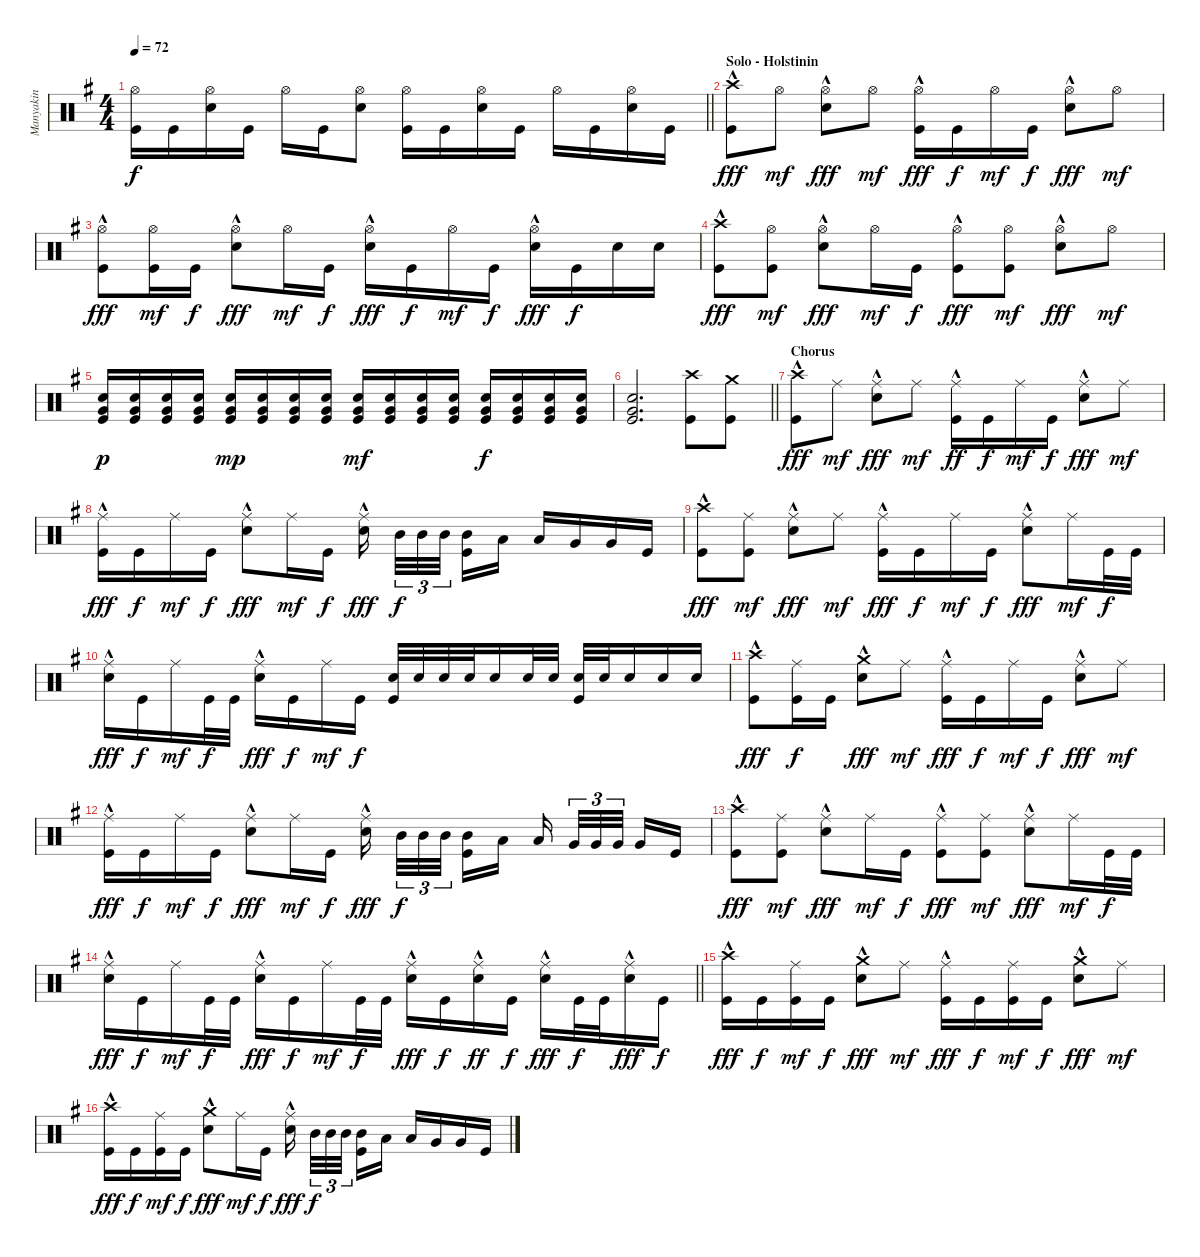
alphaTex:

\track ("Manyakin" "Manyakin") {instrument percussion}
\staff {score}
\articulation defaults
\ts (4 4)
\tempo 72
\clef neutral
\barLineRight lightlight
\ks eminor
("Hi-Hat (open)" "Kick (hit)").16{dy f beam Down} "Kick (hit)".16{beam Down} ("Hi-Hat (open)" "Snare (hit) 2").16{beam Down} "Kick (hit)".16{beam Down} "Hi-Hat (open)".16{beam Down} "Kick (hit)".16{beam Down} ("Hi-Hat (open)" "Snare (hit) 2").8{beam Down} ("Hi-Hat (open)" "Kick (hit)").16{beam Down} "Kick (hit)".16{beam Down} ("Hi-Hat (open)" "Snare (hit) 2").16{beam Down} "Kick (hit)".16{beam Down} "Hi-Hat (open)".16{beam Down} "Kick (hit)".16{beam Down} ("Hi-Hat (open)" "Snare (hit) 2").16{beam Down} "Kick (hit)".16{beam Down} |
\section ("" "Solo - Holstinin")
("Crash high (hit)"{hac} "Kick (hit)").8{dy fff beam Down} "Hi-Hat (open)".8{dy mf beam Down} ("Hi-Hat (open)"{hac} "Snare (hit) 2").8{dy fff beam Down} "Hi-Hat (open)".8{dy mf beam Down} ("Hi-Hat (open)"{hac} "Kick (hit)").16{dy fff beam Down} "Kick (hit)".16{dy f beam Down} "Hi-Hat (open)".16{dy mf beam Down} "Kick (hit)".16{dy f beam Down} ("Hi-Hat (open)"{hac} "Snare (hit) 2").8{dy fff beam Down} "Hi-Hat (open)".8{dy mf beam Down} |
("Hi-Hat (open)"{hac} "Kick (hit)").8{dy fff beam Down} ("Hi-Hat (open)" "Kick (hit)").16{dy mf beam Down} "Kick (hit)".16{dy f beam Down} ("Hi-Hat (open)"{hac} "Snare (hit) 2").8{dy fff beam Down} "Hi-Hat (open)".16{dy mf beam Down} "Kick (hit)".16{dy f beam Down} ("Hi-Hat (open)"{hac} "Snare (hit) 2").16{dy fff beam Down} "Kick (hit)".16{dy f beam Down} "Hi-Hat (open)".16{dy mf beam Down} "Kick (hit)".16{dy f beam Down} ("Hi-Hat (open)"{hac} "Snare (hit) 2").16{dy fff beam Down} "Kick (hit)".16{dy f beam Down} "Snare (hit) 2".16{beam Down} "Snare (hit) 2".16{beam Down} |
("Crash high (hit)"{hac} "Kick (hit)").8{dy fff beam Down} ("Hi-Hat (open)" "Kick (hit)").8{dy mf beam Down} ("Hi-Hat (open)"{hac} "Snare (hit) 2").8{dy fff beam Down} "Hi-Hat (open)".16{dy mf beam Down} "Kick (hit)".16{dy f beam Down} ("Hi-Hat (open)"{hac} "Kick (hit)").8{dy fff beam Down} ("Hi-Hat (open)" "Kick (hit)").8{dy mf beam Down} ("Hi-Hat (open)"{hac} "Snare (hit) 2").8{dy fff beam Down} "Hi-Hat (open)".8{dy mf beam Down} |
("Snare (hit) 2" "Very Low Tom (hit)" "Kick (hit)").16{dy p beam Up} ("Snare (hit) 2" "Very Low Tom (hit)" "Kick (hit)").16{beam Up} ("Snare (hit) 2" "Very Low Tom (hit)" "Kick (hit)").16{beam Up} ("Snare (hit) 2" "Very Low Tom (hit)" "Kick (hit)").16{beam Up} ("Snare (hit) 2" "Very Low Tom (hit)" "Kick (hit)").16{dy mp beam Up} ("Snare (hit) 2" "Very Low Tom (hit)" "Kick (hit)").16{beam Up} ("Snare (hit) 2" "Very Low Tom (hit)" "Kick (hit)").16{beam Up} ("Snare (hit) 2" "Very Low Tom (hit)" "Kick (hit)").16{beam Up} ("Snare (hit) 2" "Very Low Tom (hit)" "Kick (hit)").16{dy mf beam Up} ("Snare (hit) 2" "Very Low Tom (hit)" "Kick (hit)").16{beam Up} ("Snare (hit) 2" "Very Low Tom (hit)" "Kick (hit)").16{beam Up} ("Snare (hit) 2" "Very Low Tom (hit)" "Kick (hit)").16{beam Up} ("Snare (hit) 2" "Very Low Tom (hit)" "Kick (hit)").16{dy f beam Up} ("Snare (hit) 2" "Very Low Tom (hit)" "Kick (hit)").16{beam Up} ("Snare (hit) 2" "Very Low Tom (hit)" "Kick (hit)").16{beam Up} ("Snare (hit) 2" "Very Low Tom (hit)" "Kick (hit)").16{beam Up} |
\barLineRight lightlight
("Snare (hit) 2" "Very Low Tom (hit)" "Kick (hit)").2{d beam Up} ("Crash high (hit)" "Kick (hit)").8{beam Down} ("Crash medium (hit)" "Kick (hit)").8{beam Down} |
\section ("" "Chorus")
("Crash high (hit)"{hac} "Kick (hit)").8{dy fff beam Down} "Ride (middle)".8{dy mf beam Down} ("Ride (middle)"{hac} "Snare (hit) 2").8{dy fff beam Down} "Ride (middle)".8{dy mf beam Down} ("Ride (middle)"{hac} "Kick (hit)").16{dy ff beam Down} "Kick (hit)".16{dy f beam Down} "Ride (middle)".16{dy mf beam Down} "Kick (hit)".16{dy f beam Down} ("Ride (middle)"{hac} "Snare (hit) 2").8{dy fff beam Down} "Ride (middle)".8{dy mf beam Down} |
("Ride (middle)"{hac} "Kick (hit)").16{dy fff beam Down} "Kick (hit)".16{dy f beam Down} "Ride (middle)".16{dy mf beam Down} "Kick (hit)".16{dy f beam Down} ("Ride (middle)"{hac} "Snare (hit) 2").8{dy fff beam Down} "Ride (middle)".16{dy mf beam Down} "Kick (hit)".16{dy f beam Down} ("Ride (middle)"{hac} "Snare (hit) 2").16{dy fff beam Down beam splitsecondary} "Mid Tom (hit)".32{tu (3 2) dy f beam Down} "Mid Tom (hit)".32{tu (3 2) beam Down} "Mid Tom (hit)".32{tu (3 2) beam Down beam splitsecondary} ("Mid Tom (hit)" "Kick (hit)").16{beam Down} "Low Tom (hit)".16{beam Down} "Low Tom (hit)".16{beam Up} "Very Low Tom (hit)".16{beam Up} "Very Low Tom (hit)".16{beam Up} "Kick (hit)".16{beam Up} |
("Crash high (hit)"{hac} "Kick (hit)").8{dy fff beam Down} ("Ride (middle)" "Kick (hit)").8{dy mf beam Down} ("Ride (middle)"{hac} "Snare (hit) 2").8{dy fff beam Down} "Ride (middle)".8{dy mf beam Down} ("Ride (middle)"{hac} "Kick (hit)").16{dy fff beam Down} "Kick (hit)".16{dy f beam Down} "Ride (middle)".16{dy mf beam Down} "Kick (hit)".16{dy f beam Down} ("Ride (middle)"{hac} "Snare (hit) 2").8{dy fff beam Down} "Ride (middle)".16{dy mf beam Down} "Kick (hit)".32{dy f beam Down} "Kick (hit)".32{beam Down} |
("Ride (middle)"{hac} "Snare (hit) 2").16{dy fff beam Down} "Kick (hit)".16{dy f beam Down} "Ride (middle)".16{dy mf beam Down} "Kick (hit)".32{dy f beam Down} "Kick (hit)".32{beam Down} ("Ride (middle)"{hac} "Snare (hit) 2").16{dy fff beam Down} "Kick (hit)".16{dy f beam Down} "Ride (middle)".16{dy mf beam Down} "Kick (hit)".16{dy f beam Down} ("Snare (hit) 2" "Kick (hit)").32{beam Up} "Snare (hit) 2".32{beam Up} "Snare (hit) 2".32{beam Up} "Snare (hit) 2".32{beam Up} "Snare (hit) 2".16{beam Up} "Snare (hit) 2".32{beam Up} "Snare (hit) 2".32{beam Up} ("Snare (hit) 2" "Kick (hit)").32{beam Up} "Snare (hit) 2".32{beam Up} "Snare (hit) 2".16{beam Up} "Snare (hit) 2".16{beam Up} "Snare (hit) 2".16{beam Up} |
("Crash high (hit)"{hac} "Kick (hit)").8{dy fff beam Down} ("Ride (middle)" "Kick (hit)").16{dy f beam Down} "Kick (hit)".16{beam Down} ("Crash medium (hit)"{hac} "Snare (hit) 2").8{dy fff beam Down} "Ride (middle)".8{dy mf beam Down} ("Ride (middle)"{hac} "Kick (hit)").16{dy fff beam Down} "Kick (hit)".16{dy f beam Down} "Ride (middle)".16{dy mf beam Down} "Kick (hit)".16{dy f beam Down} ("Ride (middle)"{hac} "Snare (hit) 2").8{dy fff beam Down} "Ride (middle)".8{dy mf beam Down} |
("Ride (middle)"{hac} "Kick (hit)").16{dy fff beam Down} "Kick (hit)".16{dy f beam Down} "Ride (middle)".16{dy mf beam Down} "Kick (hit)".16{dy f beam Down} ("Ride (middle)"{hac} "Snare (hit) 2").8{dy fff beam Down} "Ride (middle)".16{dy mf beam Down} "Kick (hit)".16{dy f beam Down} ("Ride (middle)"{hac} "Snare (hit) 2").16{dy fff beam Down beam splitsecondary} "Mid Tom (hit)".32{tu (3 2) dy f beam Down} "Mid Tom (hit)".32{tu (3 2) beam Down} "Mid Tom (hit)".32{tu (3 2) beam Down beam splitsecondary} ("Mid Tom (hit)" "Kick (hit)").16{beam Down} "Low Tom (hit)".16{beam Down} "Low Tom (hit)".16{beam Up beam splitsecondary} "Very Low Tom (hit)".32{tu (3 2) beam Up} "Very Low Tom (hit)".32{tu (3 2) beam Up} "Very Low Tom (hit)".32{tu (3 2) beam Up beam splitsecondary} "Very Low Tom (hit)".16{beam Up} "Kick (hit)".16{beam Up} |
("Crash high (hit)"{hac} "Kick (hit)").8{dy fff beam Down} ("Ride (middle)" "Kick (hit)").8{dy mf beam Down} ("Ride (middle)"{hac} "Snare (hit) 2").8{dy fff beam Down} "Ride (middle)".16{dy mf beam Down} "Kick (hit)".16{dy f beam Down} ("Ride (middle)"{hac} "Kick (hit)").8{dy fff beam Down} ("Ride (middle)" "Kick (hit)").8{dy mf beam Down} ("Ride (middle)"{hac} "Snare (hit) 2").8{dy fff beam Down} "Ride (middle)".16{dy mf beam Down} "Kick (hit)".32{dy f beam Down} "Kick (hit)".32{beam Down} |
\barLineRight lightlight
("Ride (middle)"{hac} "Snare (hit) 2").16{dy fff beam Down} "Kick (hit)".16{dy f beam Down} "Ride (middle)".16{dy mf beam Down} "Kick (hit)".32{dy f beam Down} "Kick (hit)".32{beam Down} ("Ride (middle)"{hac} "Snare (hit) 2").16{dy fff beam Down} "Kick (hit)".16{dy f beam Down} "Ride (middle)".16{dy mf beam Down} "Kick (hit)".32{dy f beam Down} "Kick (hit)".32{beam Down} ("Ride (middle)"{hac} "Snare (hit) 2").16{dy fff beam Down} "Kick (hit)".16{dy f beam Down} ("Ride (middle)"{hac} "Snare (hit) 2").16{dy ff beam Down} "Kick (hit)".16{dy f beam Down} ("Ride (middle)"{hac} "Snare (hit) 2").16{dy fff beam Down} "Kick (hit)".32{dy f beam Down} "Kick (hit)".32{beam Down} ("Ride (middle)"{hac} "Snare (hit) 2").16{dy fff beam Down} "Kick (hit)".16{dy f beam Down} |
("Crash high (hit)"{hac} "Kick (hit)").16{dy fff beam Down} "Kick (hit)".16{dy f beam Down} ("Ride (middle)" "Kick (hit)").16{dy mf beam Down} "Kick (hit)".16{dy f beam Down} ("Crash medium (hit)"{hac} "Snare (hit) 2").8{dy fff beam Down} "Ride (middle)".8{dy mf beam Down} ("Ride (middle)"{hac} "Kick (hit)").16{dy fff beam Down} "Kick (hit)".16{dy f beam Down} ("Ride (middle)" "Kick (hit)").16{dy mf beam Down} "Kick (hit)".16{dy f beam Down} ("Crash medium (hit)"{hac} "Snare (hit) 2").8{dy fff beam Down} "Ride (middle)".8{dy mf beam Down} |
("Crash high (hit)"{hac} "Kick (hit)").16{dy fff beam Down} "Kick (hit)".16{dy f beam Down} ("Ride (middle)" "Kick (hit)").16{dy mf beam Down} "Kick (hit)".16{dy f beam Down} ("Crash medium (hit)"{hac} "Snare (hit) 2").8{dy fff beam Down} "Ride (middle)".16{dy mf beam Down} "Kick (hit)".16{dy f beam Down} ("Ride (middle)"{hac} "Snare (hit) 2").16{dy fff beam Down beam splitsecondary} "Mid Tom (hit)".32{tu (3 2) dy f beam Down} "Mid Tom (hit)".32{tu (3 2) beam Down} "Mid Tom (hit)".32{tu (3 2) beam Down beam splitsecondary} ("Mid Tom (hit)" "Kick (hit)").16{beam Down} "Low Tom (hit)".16{beam Down} "Low Tom (hit)".16{beam Up} "Very Low Tom (hit)".16{beam Up} "Very Low Tom (hit)".16{beam Up} "Kick (hit)".16{beam Up}
